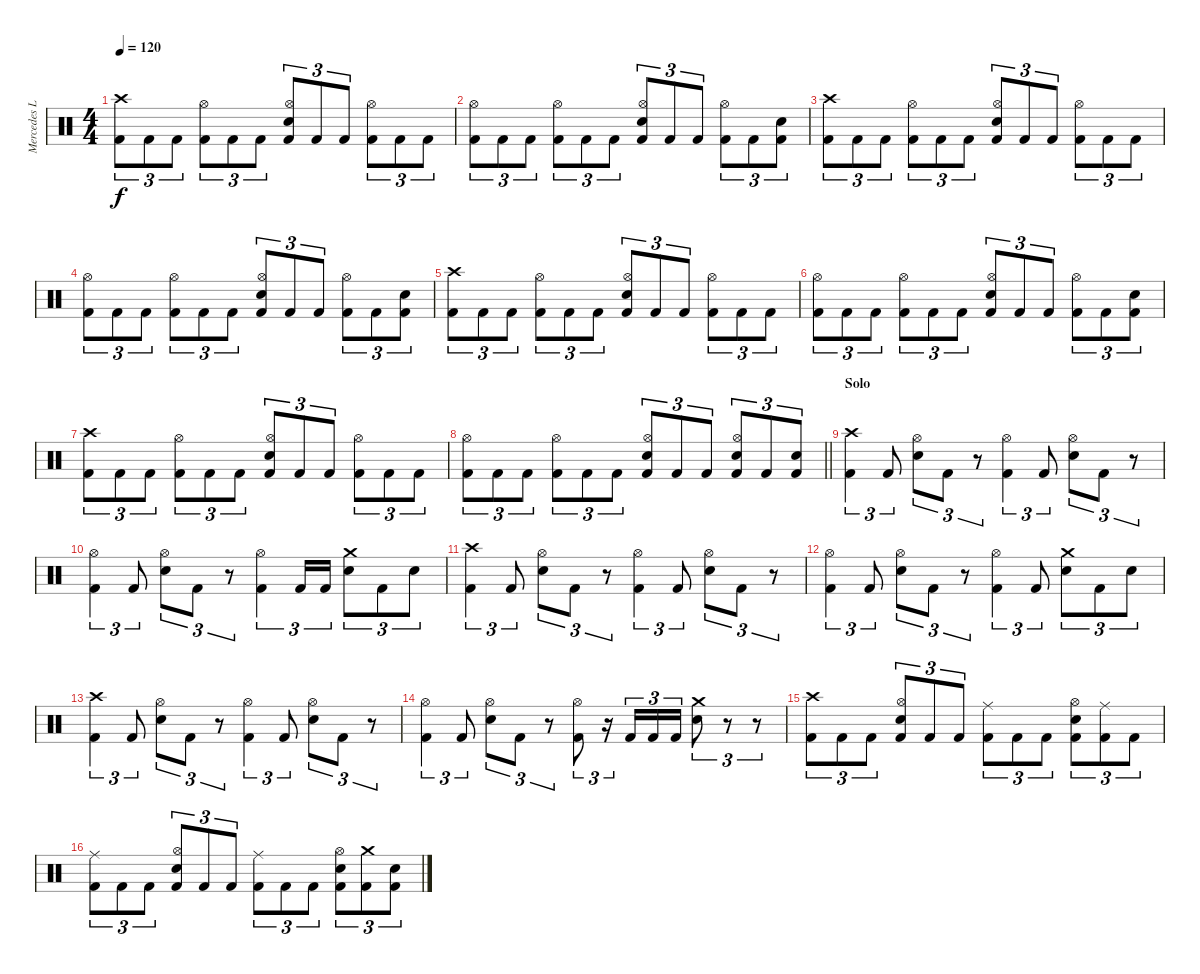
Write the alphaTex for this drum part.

\track ("Mercedes Lander" "Mercedes L") {instrument percussion}
\staff {score}
\articulation defaults
\ts (4 4)
\tempo 120
\clef neutral
\ks c
("Crash high (hit)" "Kick (hit) 2").8{tu (3 2) dy f} "Kick (hit) 2".8{tu (3 2)} "Kick (hit) 2".8{tu (3 2)} ("Hi-Hat (open)" "Kick (hit) 2").8{tu (3 2)} "Kick (hit) 2".8{tu (3 2)} "Kick (hit) 2".8{tu (3 2)} ("Hi-Hat (open)" "Snare (hit) 2" "Kick (hit) 2").8{tu (3 2)} "Kick (hit) 2".8{tu (3 2)} "Kick (hit) 2".8{tu (3 2)} ("Hi-Hat (open)" "Kick (hit) 2").8{tu (3 2)} "Kick (hit) 2".8{tu (3 2)} "Kick (hit) 2".8{tu (3 2)} |
("Hi-Hat (open)" "Kick (hit) 2").8{tu (3 2)} "Kick (hit) 2".8{tu (3 2)} "Kick (hit) 2".8{tu (3 2)} ("Hi-Hat (open)" "Kick (hit) 2").8{tu (3 2)} "Kick (hit) 2".8{tu (3 2)} "Kick (hit) 2".8{tu (3 2)} ("Hi-Hat (open)" "Snare (hit) 2" "Kick (hit) 2").8{tu (3 2)} "Kick (hit) 2".8{tu (3 2)} "Kick (hit) 2".8{tu (3 2)} ("Hi-Hat (open)" "Kick (hit) 2").8{tu (3 2)} "Kick (hit) 2".8{tu (3 2)} ("Snare (hit) 2" "Kick (hit) 2").8{tu (3 2)} |
("Crash high (hit)" "Kick (hit) 2").8{tu (3 2)} "Kick (hit) 2".8{tu (3 2)} "Kick (hit) 2".8{tu (3 2)} ("Hi-Hat (open)" "Kick (hit) 2").8{tu (3 2)} "Kick (hit) 2".8{tu (3 2)} "Kick (hit) 2".8{tu (3 2)} ("Hi-Hat (open)" "Snare (hit) 2" "Kick (hit) 2").8{tu (3 2)} "Kick (hit) 2".8{tu (3 2)} "Kick (hit) 2".8{tu (3 2)} ("Hi-Hat (open)" "Kick (hit) 2").8{tu (3 2)} "Kick (hit) 2".8{tu (3 2)} "Kick (hit) 2".8{tu (3 2)} |
("Hi-Hat (open)" "Kick (hit) 2").8{tu (3 2)} "Kick (hit) 2".8{tu (3 2)} "Kick (hit) 2".8{tu (3 2)} ("Hi-Hat (open)" "Kick (hit) 2").8{tu (3 2)} "Kick (hit) 2".8{tu (3 2)} "Kick (hit) 2".8{tu (3 2)} ("Hi-Hat (open)" "Snare (hit) 2" "Kick (hit) 2").8{tu (3 2)} "Kick (hit) 2".8{tu (3 2)} "Kick (hit) 2".8{tu (3 2)} ("Hi-Hat (open)" "Kick (hit) 2").8{tu (3 2)} "Kick (hit) 2".8{tu (3 2)} ("Snare (hit) 2" "Kick (hit) 2").8{tu (3 2)} |
("Crash high (hit)" "Kick (hit) 2").8{tu (3 2)} "Kick (hit) 2".8{tu (3 2)} "Kick (hit) 2".8{tu (3 2)} ("Hi-Hat (open)" "Kick (hit) 2").8{tu (3 2)} "Kick (hit) 2".8{tu (3 2)} "Kick (hit) 2".8{tu (3 2)} ("Hi-Hat (open)" "Snare (hit) 2" "Kick (hit) 2").8{tu (3 2)} "Kick (hit) 2".8{tu (3 2)} "Kick (hit) 2".8{tu (3 2)} ("Hi-Hat (open)" "Kick (hit) 2").8{tu (3 2)} "Kick (hit) 2".8{tu (3 2)} "Kick (hit) 2".8{tu (3 2)} |
("Hi-Hat (open)" "Kick (hit) 2").8{tu (3 2)} "Kick (hit) 2".8{tu (3 2)} "Kick (hit) 2".8{tu (3 2)} ("Hi-Hat (open)" "Kick (hit) 2").8{tu (3 2)} "Kick (hit) 2".8{tu (3 2)} "Kick (hit) 2".8{tu (3 2)} ("Hi-Hat (open)" "Snare (hit) 2" "Kick (hit) 2").8{tu (3 2)} "Kick (hit) 2".8{tu (3 2)} "Kick (hit) 2".8{tu (3 2)} ("Hi-Hat (open)" "Kick (hit) 2").8{tu (3 2)} "Kick (hit) 2".8{tu (3 2)} ("Snare (hit) 2" "Kick (hit) 2").8{tu (3 2)} |
("Crash high (hit)" "Kick (hit) 2").8{tu (3 2)} "Kick (hit) 2".8{tu (3 2)} "Kick (hit) 2".8{tu (3 2)} ("Hi-Hat (open)" "Kick (hit) 2").8{tu (3 2)} "Kick (hit) 2".8{tu (3 2)} "Kick (hit) 2".8{tu (3 2)} ("Hi-Hat (open)" "Snare (hit) 2" "Kick (hit) 2").8{tu (3 2)} "Kick (hit) 2".8{tu (3 2)} "Kick (hit) 2".8{tu (3 2)} ("Hi-Hat (open)" "Kick (hit) 2").8{tu (3 2)} "Kick (hit) 2".8{tu (3 2)} "Kick (hit) 2".8{tu (3 2)} |
\barLineRight lightlight
("Hi-Hat (open)" "Kick (hit) 2").8{tu (3 2)} "Kick (hit) 2".8{tu (3 2)} "Kick (hit) 2".8{tu (3 2)} ("Hi-Hat (open)" "Kick (hit) 2").8{tu (3 2)} "Kick (hit) 2".8{tu (3 2)} "Kick (hit) 2".8{tu (3 2)} ("Hi-Hat (open)" "Snare (hit) 2" "Kick (hit) 2").8{tu (3 2)} "Kick (hit) 2".8{tu (3 2)} "Kick (hit) 2".8{tu (3 2)} ("Hi-Hat (open)" "Snare (hit) 2" "Kick (hit) 2").8{tu (3 2)} "Kick (hit) 2".8{tu (3 2)} ("Snare (hit) 2" "Kick (hit) 2").8{tu (3 2)} |
\section ("" "Solo")
("Crash high (hit)" "Kick (hit) 2").4{tu (3 2)} "Kick (hit) 2".8{tu (3 2)} ("Hi-Hat (open)" "Snare (hit) 2").8{tu (3 2)} "Kick (hit) 2".8{tu (3 2)} r.8{tu (3 2)} ("Hi-Hat (open)" "Kick (hit) 2").4{tu (3 2)} "Kick (hit) 2".8{tu (3 2)} ("Hi-Hat (open)" "Snare (hit) 2").8{tu (3 2)} "Kick (hit) 2".8{tu (3 2)} r.8{tu (3 2)} |
("Hi-Hat (open)" "Kick (hit) 2").4{tu (3 2)} "Kick (hit) 2".8{tu (3 2)} ("Hi-Hat (open)" "Snare (hit) 2").8{tu (3 2)} "Kick (hit) 2".8{tu (3 2)} r.8{tu (3 2)} ("Hi-Hat (open)" "Kick (hit) 2").4{tu (3 2)} "Kick (hit) 2".16{tu (3 2)} "Kick (hit) 2".16{tu (3 2)} ("Crash medium (hit)" "Snare (hit) 2").8{tu (3 2)} "Kick (hit) 2".8{tu (3 2)} "Snare (hit) 2".8{tu (3 2)} |
("Crash high (hit)" "Kick (hit) 2").4{tu (3 2)} "Kick (hit) 2".8{tu (3 2)} ("Hi-Hat (open)" "Snare (hit) 2").8{tu (3 2)} "Kick (hit) 2".8{tu (3 2)} r.8{tu (3 2)} ("Hi-Hat (open)" "Kick (hit) 2").4{tu (3 2)} "Kick (hit) 2".8{tu (3 2)} ("Hi-Hat (open)" "Snare (hit) 2").8{tu (3 2)} "Kick (hit) 2".8{tu (3 2)} r.8{tu (3 2)} |
("Hi-Hat (open)" "Kick (hit) 2").4{tu (3 2)} "Kick (hit) 2".8{tu (3 2)} ("Hi-Hat (open)" "Snare (hit) 2").8{tu (3 2)} "Kick (hit) 2".8{tu (3 2)} r.8{tu (3 2)} ("Hi-Hat (open)" "Kick (hit) 2").4{tu (3 2)} "Kick (hit) 2".8{tu (3 2)} ("Crash medium (hit)" "Snare (hit) 2").8{tu (3 2)} "Kick (hit) 2".8{tu (3 2)} "Snare (hit) 2".8{tu (3 2)} |
("Crash high (hit)" "Kick (hit) 2").4{tu (3 2)} "Kick (hit) 2".8{tu (3 2)} ("Hi-Hat (open)" "Snare (hit) 2").8{tu (3 2)} "Kick (hit) 2".8{tu (3 2)} r.8{tu (3 2)} ("Hi-Hat (open)" "Kick (hit) 2").4{tu (3 2)} "Kick (hit) 2".8{tu (3 2)} ("Hi-Hat (open)" "Snare (hit) 2").8{tu (3 2)} "Kick (hit) 2".8{tu (3 2)} r.8{tu (3 2)} |
("Hi-Hat (open)" "Kick (hit) 2").4{tu (3 2)} "Kick (hit) 2".8{tu (3 2)} ("Hi-Hat (open)" "Snare (hit) 2").8{tu (3 2)} "Kick (hit) 2".8{tu (3 2)} r.8{tu (3 2)} ("Hi-Hat (open)" "Kick (hit) 2").8{tu (3 2)} r.16{tu (3 2)} "Kick (hit) 2".16{tu (3 2)} "Kick (hit) 2".16{tu (3 2)} "Kick (hit) 2".16{tu (3 2)} ("Crash medium (hit)" "Snare (hit) 2").8{tu (3 2)} r.8{tu (3 2)} r.8{tu (3 2)} |
("Crash high (hit)" "Kick (hit) 2").8{tu (3 2)} "Kick (hit) 2".8{tu (3 2)} "Kick (hit) 2".8{tu (3 2)} ("Hi-Hat (open)" "Snare (hit) 2" "Kick (hit) 2").8{tu (3 2)} "Kick (hit) 2".8{tu (3 2)} "Kick (hit) 2".8{tu (3 2)} ("Ride (middle)" "Kick (hit) 2").8{tu (3 2)} "Kick (hit) 2".8{tu (3 2)} "Kick (hit) 2".8{tu (3 2)} ("Hi-Hat (open)" "Snare (hit) 2" "Kick (hit) 2").8{tu (3 2)} ("Ride (middle)" "Kick (hit) 2").8{tu (3 2)} "Kick (hit) 2".8{tu (3 2)} |
("Ride (middle)" "Kick (hit) 2").8{tu (3 2)} "Kick (hit) 2".8{tu (3 2)} "Kick (hit) 2".8{tu (3 2)} ("Hi-Hat (open)" "Snare (hit) 2" "Kick (hit) 2").8{tu (3 2)} "Kick (hit) 2".8{tu (3 2)} "Kick (hit) 2".8{tu (3 2)} ("Ride (middle)" "Kick (hit) 2").8{tu (3 2)} "Kick (hit) 2".8{tu (3 2)} "Kick (hit) 2".8{tu (3 2)} ("Hi-Hat (open)" "Snare (hit) 2" "Kick (hit) 2").8{tu (3 2)} ("Crash medium (hit)" "Kick (hit) 2").8{tu (3 2)} ("Snare (hit) 2" "Kick (hit) 2").8{tu (3 2)}
